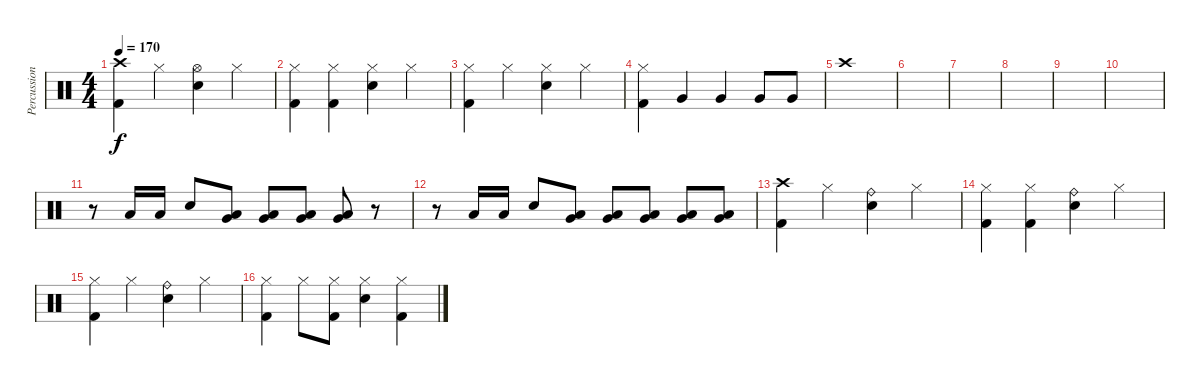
\track ("Percussion" "Percussion") {instrument percussion}
\staff {score}
\articulation defaults
\ts (4 4)
\tempo 170
\clef neutral
\ks c
("Crash high (hit)" "Kick (hit) 2").4{dy f} "Hi-Hat (closed)".4 ("Hi-Hat (open)" "Snare (hit) 2").4 "Hi-Hat (closed)".4 |
("Hi-Hat (closed)" "Kick (hit) 2").4 ("Hi-Hat (closed)" "Kick (hit) 2").4 ("Hi-Hat (closed)" "Snare (hit) 2").4 "Hi-Hat (closed)".4 |
("Hi-Hat (closed)" "Kick (hit) 2").4 "Hi-Hat (closed)".4 ("Hi-Hat (closed)" "Snare (hit) 2").4 "Hi-Hat (closed)".4 |
("Hi-Hat (closed)" "Kick (hit) 2").4 "Very Low Tom (hit)".4 "Very Low Tom (hit)".4 "Very Low Tom (hit)".8 "Very Low Tom (hit)".8 |
"Crash high (hit)".1 |
|
|
|
|
|
r.8 "Low Floor Tom (hit)".16 "Low Floor Tom (hit)".16 "Snare (hit) 2".8 ("Very Low Tom (hit)" "Low Floor Tom (hit)").8 ("Very Low Tom (hit)" "Low Floor Tom (hit)").8 ("Very Low Tom (hit)" "Low Floor Tom (hit)").8 ("Very Low Tom (hit)" "Low Floor Tom (hit)").8 r.8 |
r.8 "Low Floor Tom (hit)".16 "Low Floor Tom (hit)".16 "Snare (hit) 2".8 ("Very Low Tom (hit)" "Low Floor Tom (hit)").8 ("Very Low Tom (hit)" "Low Floor Tom (hit)").8 ("Very Low Tom (hit)" "Low Floor Tom (hit)").8 ("Very Low Tom (hit)" "Low Floor Tom (hit)").8 ("Very Low Tom (hit)" "Low Floor Tom (hit)").8 |
("Crash high (hit)" "Kick (hit) 2").4 "Hi-Hat (closed)".4 ("Ride (bell)" "Snare (hit) 2").4 "Hi-Hat (closed)".4 |
("Hi-Hat (closed)" "Kick (hit) 2").4 ("Hi-Hat (closed)" "Kick (hit) 2").4 ("Ride (bell)" "Snare (hit) 2").4 "Hi-Hat (closed)".4 |
("Hi-Hat (closed)" "Kick (hit) 2").4 "Hi-Hat (closed)".4 ("Ride (bell)" "Snare (hit) 2").4 "Hi-Hat (closed)".4 |
("Hi-Hat (closed)" "Kick (hit) 2").4 "Hi-Hat (closed)".8 ("Hi-Hat (closed)" "Kick (hit) 2").8 ("Hi-Hat (closed)" "Snare (hit) 2").4 ("Hi-Hat (closed)" "Kick (hit) 2").4
